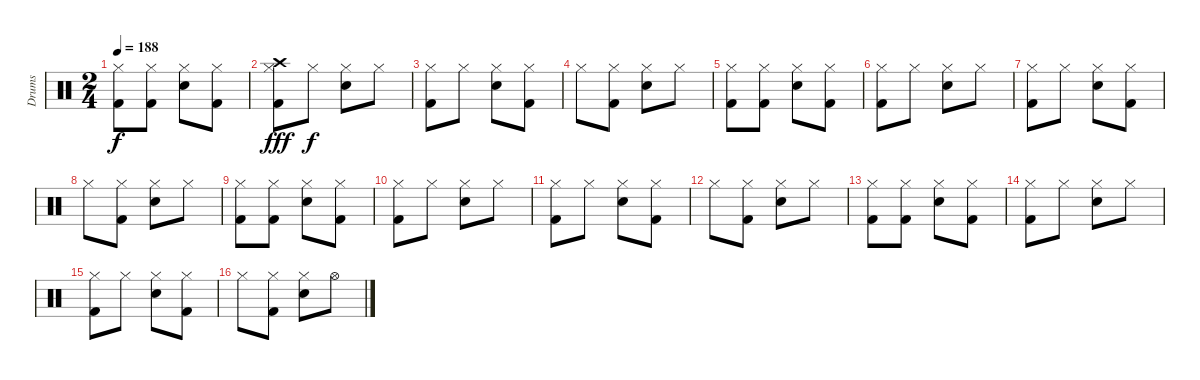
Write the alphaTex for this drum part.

\track ("Drums" "Drums") {instrument percussion}
\staff {score}
\articulation defaults
\ts (2 4)
\tempo 188
\clef neutral
\ks c
("Hi-Hat (closed)" "Kick (hit) 2").8{dy f} ("Hi-Hat (closed)" "Kick (hit) 2").8 ("Hi-Hat (closed)" "Snare (hit) 2").8 ("Hi-Hat (closed)" "Kick (hit) 2").8 |
("Crash high (hit)" "Hi-Hat (closed)" "Kick (hit) 2").8{dy fff} "Hi-Hat (closed)".8{dy f} ("Hi-Hat (closed)" "Snare (hit) 2").8 "Hi-Hat (closed)".8 |
("Hi-Hat (closed)" "Kick (hit) 2").8 "Hi-Hat (closed)".8 ("Hi-Hat (closed)" "Snare (hit) 2").8 ("Hi-Hat (closed)" "Kick (hit) 2").8 |
"Hi-Hat (closed)".8 ("Hi-Hat (closed)" "Kick (hit) 2").8 ("Hi-Hat (closed)" "Snare (hit) 2").8 "Hi-Hat (closed)".8 |
("Hi-Hat (closed)" "Kick (hit) 2").8 ("Hi-Hat (closed)" "Kick (hit) 2").8 ("Hi-Hat (closed)" "Snare (hit) 2").8 ("Hi-Hat (closed)" "Kick (hit) 2").8 |
("Hi-Hat (closed)" "Kick (hit) 2").8 "Hi-Hat (closed)".8 ("Hi-Hat (closed)" "Snare (hit) 2").8 "Hi-Hat (closed)".8 |
("Hi-Hat (closed)" "Kick (hit) 2").8 "Hi-Hat (closed)".8 ("Hi-Hat (closed)" "Snare (hit) 2").8 ("Hi-Hat (closed)" "Kick (hit) 2").8 |
"Hi-Hat (closed)".8 ("Hi-Hat (closed)" "Kick (hit) 2").8 ("Hi-Hat (closed)" "Snare (hit) 2").8 "Hi-Hat (closed)".8 |
("Hi-Hat (closed)" "Kick (hit) 2").8 ("Hi-Hat (closed)" "Kick (hit) 2").8 ("Hi-Hat (closed)" "Snare (hit) 2").8 ("Hi-Hat (closed)" "Kick (hit) 2").8 |
("Hi-Hat (closed)" "Kick (hit) 2").8 "Hi-Hat (closed)".8 ("Hi-Hat (closed)" "Snare (hit) 2").8 "Hi-Hat (closed)".8 |
("Hi-Hat (closed)" "Kick (hit) 2").8 "Hi-Hat (closed)".8 ("Hi-Hat (closed)" "Snare (hit) 2").8 ("Hi-Hat (closed)" "Kick (hit) 2").8 |
"Hi-Hat (closed)".8 ("Hi-Hat (closed)" "Kick (hit) 2").8 ("Hi-Hat (closed)" "Snare (hit) 2").8 "Hi-Hat (closed)".8 |
("Hi-Hat (closed)" "Kick (hit) 2").8 ("Hi-Hat (closed)" "Kick (hit) 2").8 ("Hi-Hat (closed)" "Snare (hit) 2").8 ("Hi-Hat (closed)" "Kick (hit) 2").8 |
("Hi-Hat (closed)" "Kick (hit) 2").8 "Hi-Hat (closed)".8 ("Hi-Hat (closed)" "Snare (hit) 2").8 "Hi-Hat (closed)".8 |
("Hi-Hat (closed)" "Kick (hit) 2").8 "Hi-Hat (closed)".8 ("Hi-Hat (closed)" "Snare (hit) 2").8 ("Hi-Hat (closed)" "Kick (hit) 2").8 |
"Hi-Hat (closed)".8 ("Hi-Hat (closed)" "Kick (hit) 2").8 ("Hi-Hat (closed)" "Snare (hit) 2").8 "Hi-Hat (open)".8
